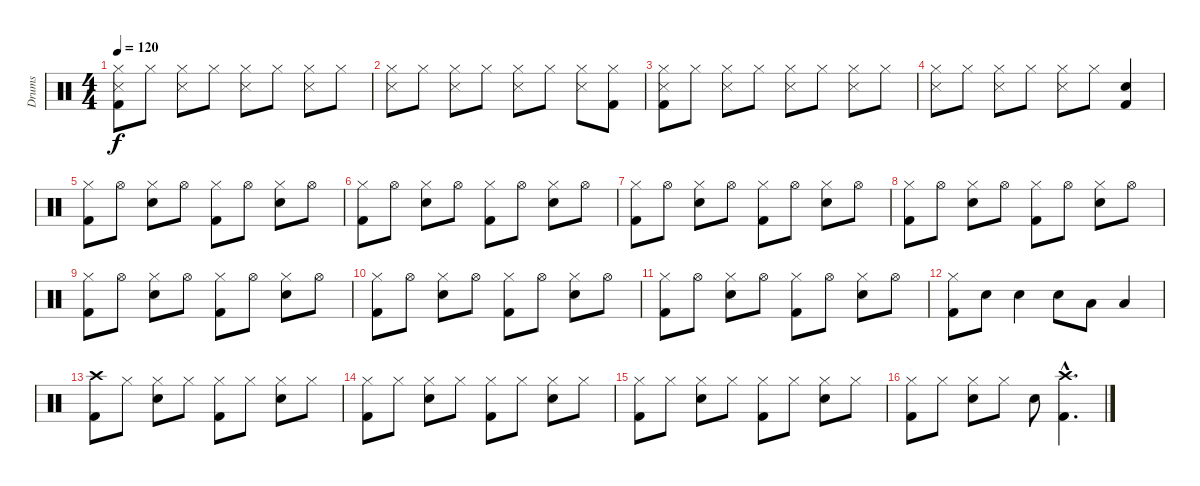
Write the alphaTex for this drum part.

\track ("Drums" "Drums") {instrument percussion}
\staff {score}
\articulation defaults
\ts (4 4)
\tempo 120
\clef neutral
\ks c
("Hi-Hat (closed)" "Metronome (hit)" "Kick (hit) 2").8{dy f} "Hi-Hat (closed)".8 ("Hi-Hat (closed)" "Metronome (hit)").8 "Hi-Hat (closed)".8 ("Hi-Hat (closed)" "Metronome (hit)").8 "Hi-Hat (closed)".8 ("Hi-Hat (closed)" "Metronome (hit)").8 "Hi-Hat (closed)".8 |
("Hi-Hat (closed)" "Metronome (hit)").8 "Hi-Hat (closed)".8 ("Hi-Hat (closed)" "Metronome (hit)").8 "Hi-Hat (closed)".8 ("Hi-Hat (closed)" "Metronome (hit)").8 "Hi-Hat (closed)".8 ("Hi-Hat (closed)" "Metronome (hit)").8 ("Hi-Hat (closed)" "Kick (hit) 2").8 |
("Hi-Hat (closed)" "Metronome (hit)" "Kick (hit) 2").8 "Hi-Hat (closed)".8 ("Hi-Hat (closed)" "Metronome (hit)").8 "Hi-Hat (closed)".8 ("Hi-Hat (closed)" "Metronome (hit)").8 "Hi-Hat (closed)".8 ("Hi-Hat (closed)" "Metronome (hit)").8 "Hi-Hat (closed)".8 |
("Hi-Hat (closed)" "Metronome (hit)").8 "Hi-Hat (closed)".8 ("Hi-Hat (closed)" "Metronome (hit)").8 "Hi-Hat (closed)".8 ("Hi-Hat (closed)" "Metronome (hit)").8 "Hi-Hat (closed)".8 ("Electric Snare (hit)" "Kick (hit) 2").4 |
("Hi-Hat (closed)" "Kick (hit) 2").8 "Hi-Hat (open)".8 ("Hi-Hat (closed)" "Electric Snare (hit)").8 "Hi-Hat (open)".8 ("Hi-Hat (closed)" "Kick (hit) 2").8 "Hi-Hat (open)".8 ("Hi-Hat (closed)" "Electric Snare (hit)").8 "Hi-Hat (open)".8 |
("Hi-Hat (closed)" "Kick (hit) 2").8 "Hi-Hat (open)".8 ("Hi-Hat (closed)" "Electric Snare (hit)").8 "Hi-Hat (open)".8 ("Hi-Hat (closed)" "Kick (hit) 2").8 "Hi-Hat (open)".8 ("Hi-Hat (closed)" "Electric Snare (hit)").8 "Hi-Hat (open)".8 |
("Hi-Hat (closed)" "Kick (hit) 2").8 "Hi-Hat (open)".8 ("Hi-Hat (closed)" "Electric Snare (hit)").8 "Hi-Hat (open)".8 ("Hi-Hat (closed)" "Kick (hit) 2").8 "Hi-Hat (open)".8 ("Hi-Hat (closed)" "Electric Snare (hit)").8 "Hi-Hat (open)".8 |
("Hi-Hat (closed)" "Kick (hit) 2").8 "Hi-Hat (open)".8 ("Hi-Hat (closed)" "Electric Snare (hit)").8 "Hi-Hat (open)".8 ("Hi-Hat (closed)" "Kick (hit) 2").8 "Hi-Hat (open)".8 ("Hi-Hat (closed)" "Electric Snare (hit)").8 "Hi-Hat (open)".8 |
("Hi-Hat (closed)" "Kick (hit) 2").8 "Hi-Hat (open)".8 ("Hi-Hat (closed)" "Electric Snare (hit)").8 "Hi-Hat (open)".8 ("Hi-Hat (closed)" "Kick (hit) 2").8 "Hi-Hat (open)".8 ("Hi-Hat (closed)" "Electric Snare (hit)").8 "Hi-Hat (open)".8 |
("Hi-Hat (closed)" "Kick (hit) 2").8 "Hi-Hat (open)".8 ("Hi-Hat (closed)" "Electric Snare (hit)").8 "Hi-Hat (open)".8 ("Hi-Hat (closed)" "Kick (hit) 2").8 "Hi-Hat (open)".8 ("Hi-Hat (closed)" "Electric Snare (hit)").8 "Hi-Hat (open)".8 |
("Hi-Hat (closed)" "Kick (hit) 2").8 "Hi-Hat (open)".8 ("Hi-Hat (closed)" "Electric Snare (hit)").8 "Hi-Hat (open)".8 ("Hi-Hat (closed)" "Kick (hit) 2").8 "Hi-Hat (open)".8 ("Hi-Hat (closed)" "Electric Snare (hit)").8 "Hi-Hat (open)".8 |
("Hi-Hat (closed)" "Kick (hit) 2").8 "Electric Snare (hit)".8 "Electric Snare (hit)".4 "Electric Snare (hit)".8 "Low Tom (hit)".8 "Low Tom (hit)".4 |
("Crash high (hit)" "Kick (hit) 2").8 "Hi-Hat (closed)".8 ("Hi-Hat (closed)" "Electric Snare (hit)").8 "Hi-Hat (closed)".8 ("Hi-Hat (closed)" "Kick (hit) 2").8 "Hi-Hat (closed)".8 ("Hi-Hat (closed)" "Electric Snare (hit)").8 "Hi-Hat (closed)".8 |
("Hi-Hat (closed)" "Kick (hit) 2").8 "Hi-Hat (closed)".8 ("Hi-Hat (closed)" "Electric Snare (hit)").8 "Hi-Hat (closed)".8 ("Hi-Hat (closed)" "Kick (hit) 2").8 "Hi-Hat (closed)".8 ("Hi-Hat (closed)" "Electric Snare (hit)").8 "Hi-Hat (closed)".8 |
("Hi-Hat (closed)" "Kick (hit) 2").8 "Hi-Hat (closed)".8 ("Hi-Hat (closed)" "Electric Snare (hit)").8 "Hi-Hat (closed)".8 ("Hi-Hat (closed)" "Kick (hit) 2").8 "Hi-Hat (closed)".8 ("Hi-Hat (closed)" "Electric Snare (hit)").8 "Hi-Hat (closed)".8 |
("Hi-Hat (closed)" "Kick (hit) 2").8 "Hi-Hat (closed)".8 ("Hi-Hat (closed)" "Electric Snare (hit)").8 "Hi-Hat (closed)".8 "Electric Snare (hit)".8 ("Crash high (hit)"{hac} "Kick (hit) 2"{hac}).4{d}
